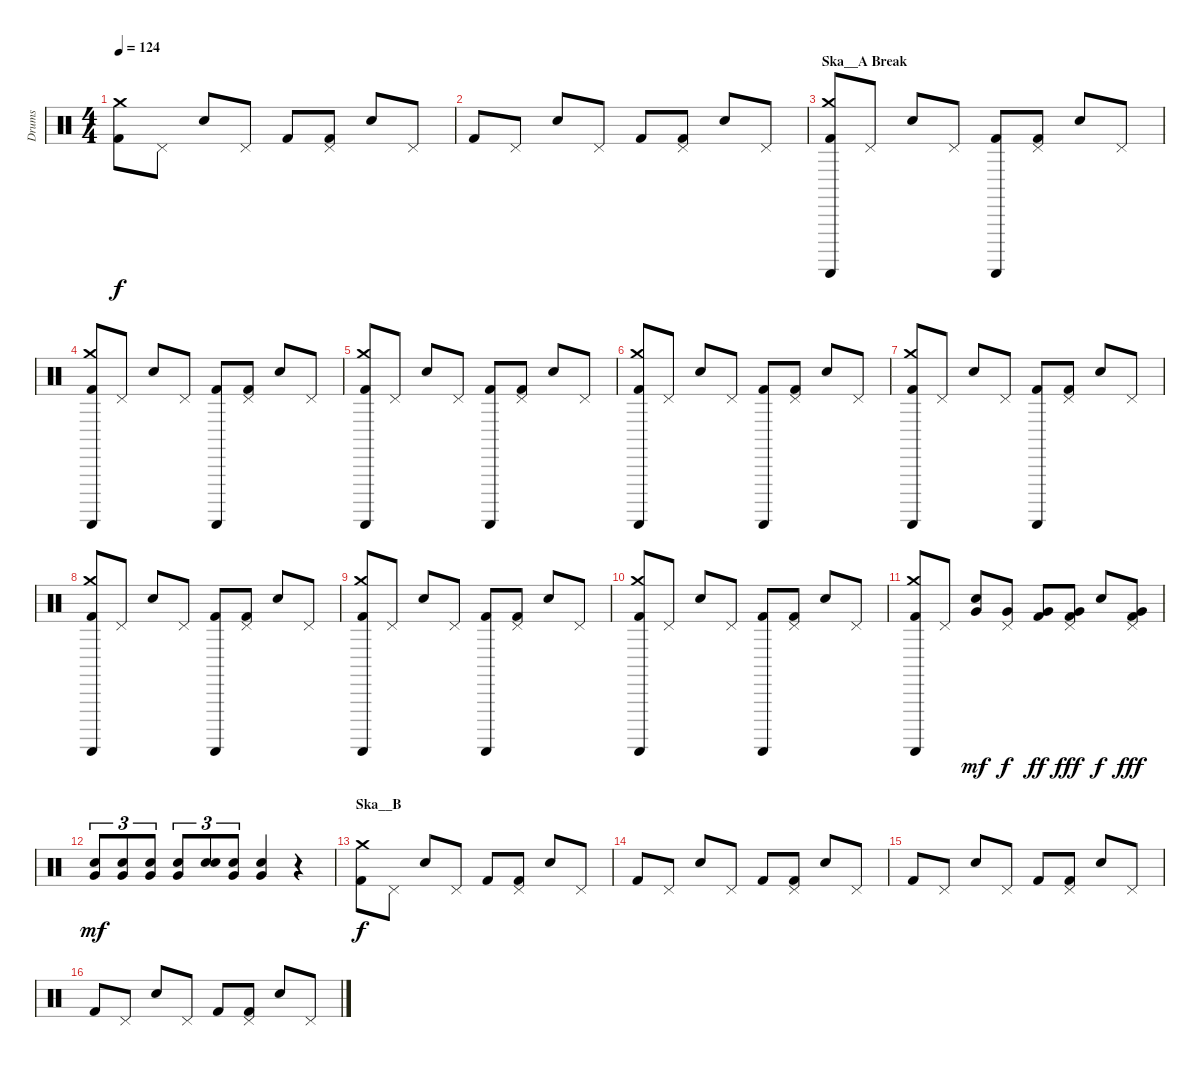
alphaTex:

\track ("Drums" "Drums") {instrument percussion}
\staff {score}
\articulation defaults
\ts (4 4)
\tempo 124
\clef neutral
\ks c
("Crash medium (hit)" "Kick (hit) 2").8{dy f} "Pedal Hi-Hat (hit)".8 "Snare (hit) 2".8 "Pedal Hi-Hat (hit)".8 "Kick (hit) 2".8 ("Pedal Hi-Hat (hit)" "Kick (hit) 2").8 "Snare (hit) 2".8 "Pedal Hi-Hat (hit)".8 |
"Kick (hit) 2".8 "Pedal Hi-Hat (hit)".8 "Snare (hit) 2".8 "Pedal Hi-Hat (hit)".8 "Kick (hit) 2".8 ("Pedal Hi-Hat (hit)" "Kick (hit) 2").8 "Snare (hit) 2".8 "Pedal Hi-Hat (hit)".8 |
\section ("" "Ska__A Break")
("Crash medium (hit)" "Guiro (scrap-return)" "Kick (hit) 2").8 "Pedal Hi-Hat (hit)".8 "Snare (hit) 2".8 "Pedal Hi-Hat (hit)".8 ("Guiro (scrap-return)" "Kick (hit) 2").8 ("Pedal Hi-Hat (hit)" "Kick (hit) 2").8 "Snare (hit) 2".8 "Pedal Hi-Hat (hit)".8 |
("Crash medium (hit)" "Guiro (scrap-return)" "Kick (hit) 2").8 "Pedal Hi-Hat (hit)".8 "Snare (hit) 2".8 "Pedal Hi-Hat (hit)".8 ("Guiro (scrap-return)" "Kick (hit) 2").8 ("Pedal Hi-Hat (hit)" "Kick (hit) 2").8 "Snare (hit) 2".8 "Pedal Hi-Hat (hit)".8 |
("Crash medium (hit)" "Guiro (scrap-return)" "Kick (hit) 2").8 "Pedal Hi-Hat (hit)".8 "Snare (hit) 2".8 "Pedal Hi-Hat (hit)".8 ("Guiro (scrap-return)" "Kick (hit) 2").8 ("Pedal Hi-Hat (hit)" "Kick (hit) 2").8 "Snare (hit) 2".8 "Pedal Hi-Hat (hit)".8 |
("Crash medium (hit)" "Guiro (scrap-return)" "Kick (hit) 2").8 "Pedal Hi-Hat (hit)".8 "Snare (hit) 2".8 "Pedal Hi-Hat (hit)".8 ("Guiro (scrap-return)" "Kick (hit) 2").8 ("Pedal Hi-Hat (hit)" "Kick (hit) 2").8 "Snare (hit) 2".8 "Pedal Hi-Hat (hit)".8 |
("Crash medium (hit)" "Guiro (scrap-return)" "Kick (hit) 2").8 "Pedal Hi-Hat (hit)".8 "Snare (hit) 2".8 "Pedal Hi-Hat (hit)".8 ("Guiro (scrap-return)" "Kick (hit) 2").8 ("Pedal Hi-Hat (hit)" "Kick (hit) 2").8 "Snare (hit) 2".8 "Pedal Hi-Hat (hit)".8 |
("Crash medium (hit)" "Guiro (scrap-return)" "Kick (hit) 2").8 "Pedal Hi-Hat (hit)".8 "Snare (hit) 2".8 "Pedal Hi-Hat (hit)".8 ("Guiro (scrap-return)" "Kick (hit) 2").8 ("Pedal Hi-Hat (hit)" "Kick (hit) 2").8 "Snare (hit) 2".8 "Pedal Hi-Hat (hit)".8 |
("Crash medium (hit)" "Guiro (scrap-return)" "Kick (hit) 2").8 "Pedal Hi-Hat (hit)".8 "Snare (hit) 2".8 "Pedal Hi-Hat (hit)".8 ("Guiro (scrap-return)" "Kick (hit) 2").8 ("Pedal Hi-Hat (hit)" "Kick (hit) 2").8 "Snare (hit) 2".8 "Pedal Hi-Hat (hit)".8 |
("Crash medium (hit)" "Guiro (scrap-return)" "Kick (hit) 2").8 "Pedal Hi-Hat (hit)".8 "Snare (hit) 2".8 "Pedal Hi-Hat (hit)".8 ("Guiro (scrap-return)" "Kick (hit) 2").8 ("Pedal Hi-Hat (hit)" "Kick (hit) 2").8 "Snare (hit) 2".8 "Pedal Hi-Hat (hit)".8 |
("Crash medium (hit)" "Guiro (scrap-return)" "Kick (hit) 2").8 "Pedal Hi-Hat (hit)".8 ("Very Low Tom (hit)" "Snare (hit) 2").8{dy mf} ("Pedal Hi-Hat (hit)" "Very Low Tom (hit)").8{dy f} ("Very Low Tom (hit)" "Kick (hit) 2").8{dy ff} ("Pedal Hi-Hat (hit)" "Very Low Tom (hit)" "Kick (hit) 2").8{dy fff} "Snare (hit) 2".8{dy f} ("Pedal Hi-Hat (hit)" "Very Low Tom (hit)" "Kick (hit) 2").8{dy fff} |
("Very Low Tom (hit)" "Snare (hit) 2").8{tu (3 2) dy mf} ("Very Low Tom (hit)" "Snare (hit) 2").8{tu (3 2)} ("Very Low Tom (hit)" "Snare (hit) 2").8{tu (3 2)} ("Very Low Tom (hit)" "Snare (hit) 2").8{tu (3 2)} ("Metronome (bell)" "Snare (hit) 2").8{tu (3 2)} ("Very Low Tom (hit)" "Snare (hit) 2").8{tu (3 2)} ("Very Low Tom (hit)" "Snare (hit) 2").4 r.4 |
\section ("" "Ska__B")
("Crash medium (hit)" "Kick (hit) 2").8{dy f} "Pedal Hi-Hat (hit)".8 "Snare (hit) 2".8 "Pedal Hi-Hat (hit)".8 "Kick (hit) 2".8 ("Pedal Hi-Hat (hit)" "Kick (hit) 2").8 "Snare (hit) 2".8 "Pedal Hi-Hat (hit)".8 |
"Kick (hit) 2".8 "Pedal Hi-Hat (hit)".8 "Snare (hit) 2".8 "Pedal Hi-Hat (hit)".8 "Kick (hit) 2".8 ("Pedal Hi-Hat (hit)" "Kick (hit) 2").8 "Snare (hit) 2".8 "Pedal Hi-Hat (hit)".8 |
"Kick (hit) 2".8 "Pedal Hi-Hat (hit)".8 "Snare (hit) 2".8 "Pedal Hi-Hat (hit)".8 "Kick (hit) 2".8 ("Pedal Hi-Hat (hit)" "Kick (hit) 2").8 "Snare (hit) 2".8 "Pedal Hi-Hat (hit)".8 |
"Kick (hit) 2".8 "Pedal Hi-Hat (hit)".8 "Snare (hit) 2".8 "Pedal Hi-Hat (hit)".8 "Kick (hit) 2".8 ("Pedal Hi-Hat (hit)" "Kick (hit) 2").8 "Snare (hit) 2".8 "Pedal Hi-Hat (hit)".8
